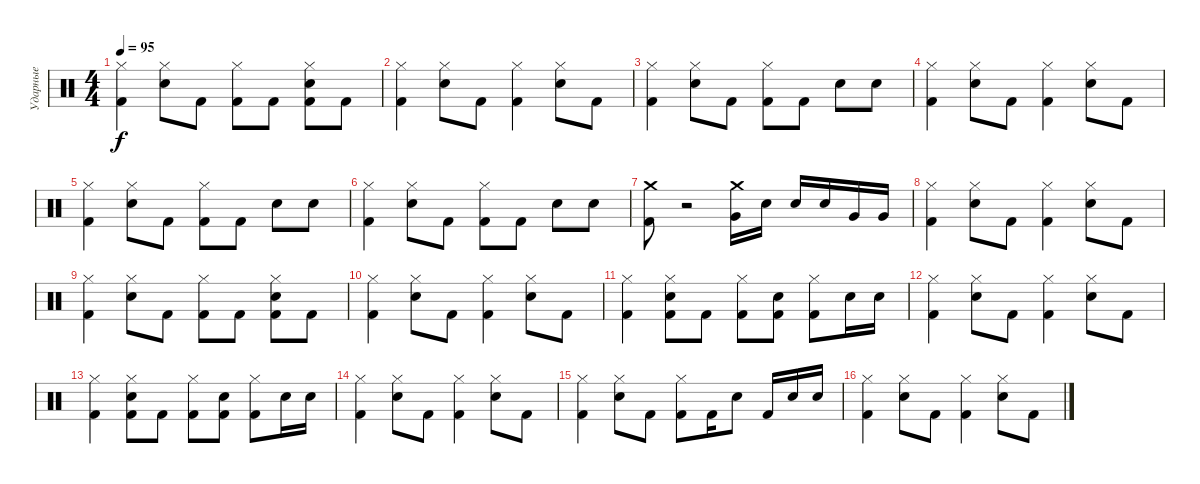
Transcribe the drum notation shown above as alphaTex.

\track ("Ударные" "Ударные") {instrument percussion}
\staff {score}
\articulation defaults
\ts (4 4)
\tempo 95
\clef neutral
\ks c
("Hi-Hat (closed)" "Kick (hit) 2").4{dy f} ("Hi-Hat (closed)" "Snare (hit) 2").8 "Kick (hit) 2".8 ("Hi-Hat (closed)" "Kick (hit) 2").8 "Kick (hit) 2".8 ("Hi-Hat (closed)" "Snare (hit) 2" "Kick (hit) 2").8 "Kick (hit) 2".8 |
("Hi-Hat (closed)" "Kick (hit) 2").4 ("Hi-Hat (closed)" "Snare (hit) 2").8 "Kick (hit) 2".8 ("Hi-Hat (closed)" "Kick (hit) 2").4 ("Hi-Hat (closed)" "Snare (hit) 2").8 "Kick (hit) 2".8 |
("Hi-Hat (closed)" "Kick (hit) 2").4 ("Hi-Hat (closed)" "Snare (hit) 2").8 "Kick (hit) 2".8 ("Hi-Hat (closed)" "Kick (hit) 2").8 "Kick (hit) 2".8 "Snare (hit) 2".8 "Snare (hit) 2".8 |
("Hi-Hat (closed)" "Kick (hit) 2").4 ("Hi-Hat (closed)" "Snare (hit) 2").8 "Kick (hit) 2".8 ("Hi-Hat (closed)" "Kick (hit) 2").4 ("Hi-Hat (closed)" "Snare (hit) 2").8 "Kick (hit) 2".8 |
("Hi-Hat (closed)" "Kick (hit) 2").4 ("Hi-Hat (closed)" "Snare (hit) 2").8 "Kick (hit) 2".8 ("Hi-Hat (closed)" "Kick (hit) 2").8 "Kick (hit) 2".8 "Snare (hit) 2".8 "Snare (hit) 2".8 |
("Hi-Hat (closed)" "Kick (hit) 2").4 ("Hi-Hat (closed)" "Snare (hit) 2").8 "Kick (hit) 2".8 ("Hi-Hat (closed)" "Kick (hit) 2").8 "Kick (hit) 2".8 "Snare (hit) 2".8 "Snare (hit) 2".8 |
("Crash medium (hit)" "Kick (hit) 2").8 r.2 ("Crash medium (hit)" "Very Low Tom (hit)").16 "Snare (hit) 2".16 "Snare (hit) 2".16 "Snare (hit) 2".16 "Very Low Tom (hit)".16 "Very Low Tom (hit)".16 |
("Hi-Hat (closed)" "Kick (hit) 2").4 ("Hi-Hat (closed)" "Snare (hit) 2").8 "Kick (hit) 2".8 ("Hi-Hat (closed)" "Kick (hit) 2").4 ("Hi-Hat (closed)" "Snare (hit) 2").8 "Kick (hit) 2".8 |
("Hi-Hat (closed)" "Kick (hit) 2").4 ("Hi-Hat (closed)" "Snare (hit) 2").8 "Kick (hit) 2".8 ("Hi-Hat (closed)" "Kick (hit) 2").8 "Kick (hit) 2".8 ("Hi-Hat (closed)" "Snare (hit) 2" "Kick (hit) 2").8 "Kick (hit) 2".8 |
("Hi-Hat (closed)" "Kick (hit) 2").4 ("Hi-Hat (closed)" "Snare (hit) 2").8 "Kick (hit) 2".8 ("Hi-Hat (closed)" "Kick (hit) 2").4 ("Hi-Hat (closed)" "Snare (hit) 2").8 "Kick (hit) 2".8 |
("Hi-Hat (closed)" "Kick (hit) 2").4 ("Hi-Hat (closed)" "Snare (hit) 2" "Kick (hit) 2").8 "Kick (hit) 2".8 ("Hi-Hat (closed)" "Kick (hit) 2").8 ("Snare (hit) 2" "Kick (hit) 2").8 ("Hi-Hat (closed)" "Kick (hit) 2").8 "Snare (hit) 2".16 "Snare (hit) 2".16 |
("Hi-Hat (closed)" "Kick (hit) 2").4 ("Hi-Hat (closed)" "Snare (hit) 2").8 "Kick (hit) 2".8 ("Hi-Hat (closed)" "Kick (hit) 2").4 ("Hi-Hat (closed)" "Snare (hit) 2").8 "Kick (hit) 2".8 |
("Hi-Hat (closed)" "Kick (hit) 2").4 ("Hi-Hat (closed)" "Snare (hit) 2" "Kick (hit) 2").8 "Kick (hit) 2".8 ("Hi-Hat (closed)" "Kick (hit) 2").8 ("Snare (hit) 2" "Kick (hit) 2").8 ("Hi-Hat (closed)" "Kick (hit) 2").8 "Snare (hit) 2".16 "Snare (hit) 2".16 |
("Hi-Hat (closed)" "Kick (hit) 2").4 ("Hi-Hat (closed)" "Snare (hit) 2").8 "Kick (hit) 2".8 ("Hi-Hat (closed)" "Kick (hit) 2").4 ("Hi-Hat (closed)" "Snare (hit) 2").8 "Kick (hit) 2".8 |
("Hi-Hat (closed)" "Kick (hit) 2").4 ("Hi-Hat (closed)" "Snare (hit) 2").8 "Kick (hit) 2".8 ("Hi-Hat (closed)" "Kick (hit) 2").8 "Kick (hit) 2".16 "Snare (hit) 2".8 "Kick (hit) 2".16 "Snare (hit) 2".16 "Snare (hit) 2".16 |
("Hi-Hat (closed)" "Kick (hit) 2").4 ("Hi-Hat (closed)" "Snare (hit) 2").8 "Kick (hit) 2".8 ("Hi-Hat (closed)" "Kick (hit) 2").4 ("Hi-Hat (closed)" "Snare (hit) 2").8 "Kick (hit) 2".8
